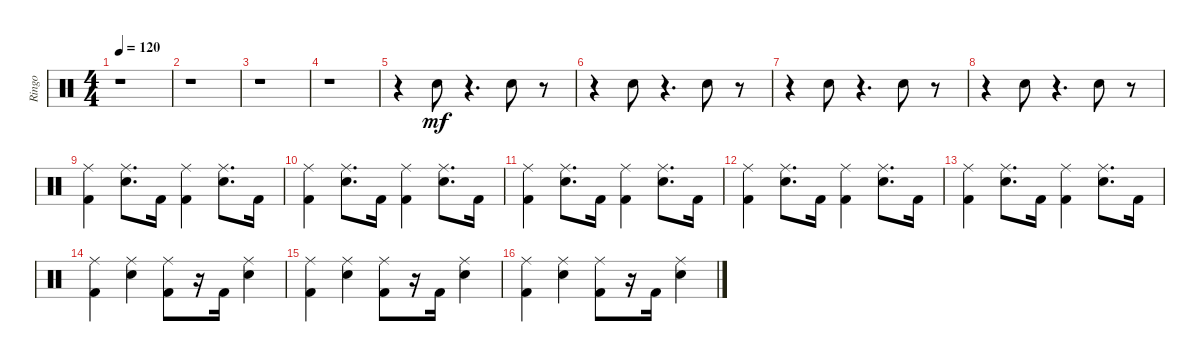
\track ("Ringo" "Ringo") {instrument percussion}
\staff {score}
\articulation defaults
\ts (4 4)
\tempo 120
\clef neutral
\ks c
r.1{dy mf} |
r.1 |
r.1 |
r.1 |
r.4 "Electric Snare (hit)".8 r.4{d} "Electric Snare (hit)".8 r.8 |
r.4 "Electric Snare (hit)".8 r.4{d} "Electric Snare (hit)".8 r.8 |
r.4 "Electric Snare (hit)".8 r.4{d} "Electric Snare (hit)".8 r.8 |
r.4 "Electric Snare (hit)".8 r.4{d} "Electric Snare (hit)".8 r.8 |
("Kick (hit) 2" "Ride (middle)").4 ("Electric Snare (hit)" "Ride (middle)").8{d} "Kick (hit) 2".16 ("Kick (hit) 2" "Ride (middle)").4 ("Electric Snare (hit)" "Ride (middle)").8{d} "Kick (hit) 2".16 |
("Kick (hit) 2" "Ride (middle)").4 ("Electric Snare (hit)" "Ride (middle)").8{d} "Kick (hit) 2".16 ("Kick (hit) 2" "Ride (middle)").4 ("Electric Snare (hit)" "Ride (middle)").8{d} "Kick (hit) 2".16 |
("Kick (hit) 2" "Ride (middle)").4 ("Electric Snare (hit)" "Ride (middle)").8{d} "Kick (hit) 2".16 ("Kick (hit) 2" "Ride (middle)").4 ("Electric Snare (hit)" "Ride (middle)").8{d} "Kick (hit) 2".16 |
("Kick (hit) 2" "Ride (middle)").4 ("Electric Snare (hit)" "Ride (middle)").8{d} "Kick (hit) 2".16 ("Kick (hit) 2" "Ride (middle)").4 ("Electric Snare (hit)" "Ride (middle)").8{d} "Kick (hit) 2".16 |
("Kick (hit) 2" "Ride (middle)").4 ("Electric Snare (hit)" "Ride (middle)").8{d} "Kick (hit) 2".16 ("Kick (hit) 2" "Ride (middle)").4 ("Electric Snare (hit)" "Ride (middle)").8{d} "Kick (hit) 2".16 |
("Kick (hit) 2" "Ride (middle)").4 ("Electric Snare (hit)" "Ride (middle)").4 ("Ride (middle)" "Kick (hit) 2").8 r.16 "Kick (hit) 2".16 ("Electric Snare (hit)" "Ride (middle)").4 |
("Kick (hit) 2" "Ride (middle)").4 ("Electric Snare (hit)" "Ride (middle)").4 ("Ride (middle)" "Kick (hit) 2").8 r.16 "Kick (hit) 2".16 ("Electric Snare (hit)" "Ride (middle)").4 |
("Kick (hit) 2" "Ride (middle)").4 ("Electric Snare (hit)" "Ride (middle)").4 ("Ride (middle)" "Kick (hit) 2").8 r.16 "Kick (hit) 2".16 ("Electric Snare (hit)" "Ride (middle)").4
